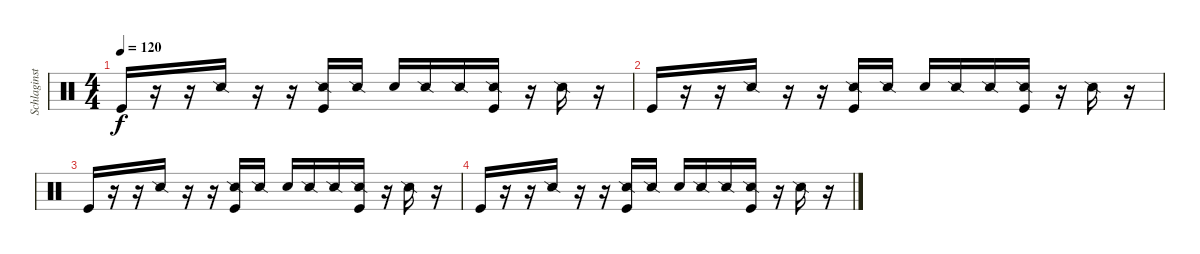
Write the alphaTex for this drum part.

\track ("Schlaginstrumente - Auswahl" "Schlaginst") {instrument percussion}
\staff {score}
\articulation defaults
\ts (4 4)
\tempo 120
\clef neutral
\ks c "Kick (hit)".16{dy f}
r.16 r.16 "Snare (side stick) 2".16 r.16 r.16 ("Snare (side stick) 2" "Kick (hit)").16 "Snare (side stick) 2".16 "Snare (hit) 2".16 "Snare (side stick) 2".16 "Snare (side stick) 2".16 ("Snare (side stick) 2" "Kick (hit)").16 r.16 "Snare (side stick) 2".16 r.16 |
"Kick (hit)".16 r.16 r.16 "Snare (side stick) 2".16 r.16 r.16 ("Snare (side stick) 2" "Kick (hit)").16 "Snare (side stick) 2".16 "Snare (hit) 2".16 "Snare (side stick) 2".16 "Snare (side stick) 2".16 ("Snare (side stick) 2" "Kick (hit)").16 r.16 "Snare (side stick) 2".16 r.16 |
"Kick (hit)".16 r.16 r.16 "Snare (side stick) 2".16 r.16 r.16 ("Snare (side stick) 2" "Kick (hit)").16 "Snare (side stick) 2".16 "Snare (hit) 2".16 "Snare (side stick) 2".16 "Snare (side stick) 2".16 ("Snare (side stick) 2" "Kick (hit)").16 r.16 "Snare (side stick) 2".16 r.16 |
"Kick (hit)".16 r.16 r.16 "Snare (side stick) 2".16 r.16 r.16 ("Snare (side stick) 2" "Kick (hit)").16 "Snare (side stick) 2".16 "Snare (hit) 2".16 "Snare (side stick) 2".16 "Snare (side stick) 2".16 ("Snare (side stick) 2" "Kick (hit)").16 r.16 "Snare (side stick) 2".16 r.16
